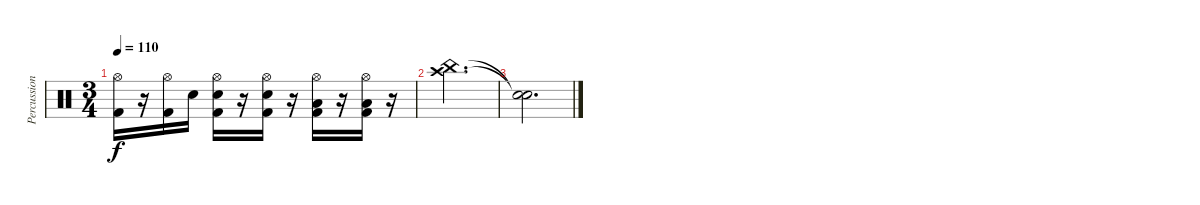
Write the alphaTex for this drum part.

\track ("Percussion" "Percussion") {instrument percussion}
\staff {score}
\articulation defaults
\ts (3 4)
\tempo 110
\clef neutral
\ks c
("Hi-Hat (open)" "Kick (hit) 2").16{dy f} r.16 ("Hi-Hat (open)" "Kick (hit) 2").16 "Electric Snare (hit)".16 ("Hi-Hat (open)" "Electric Snare (hit)" "Kick (hit) 2").16 r.16 ("Hi-Hat (open)" "Electric Snare (hit)" "Kick (hit) 2").16 r.16 ("Hi-Hat (open)" "Low Tom (hit)" "Kick (hit) 2").16 r.16 ("Hi-Hat (open)" "Low Floor Tom (hit)" "Kick (hit) 2").16 r.16 |
("Crash high (hit)" "China (hit)").2{d} |
("Snare (hit)"{t} "Snare (hit)"{t}).2{d}
